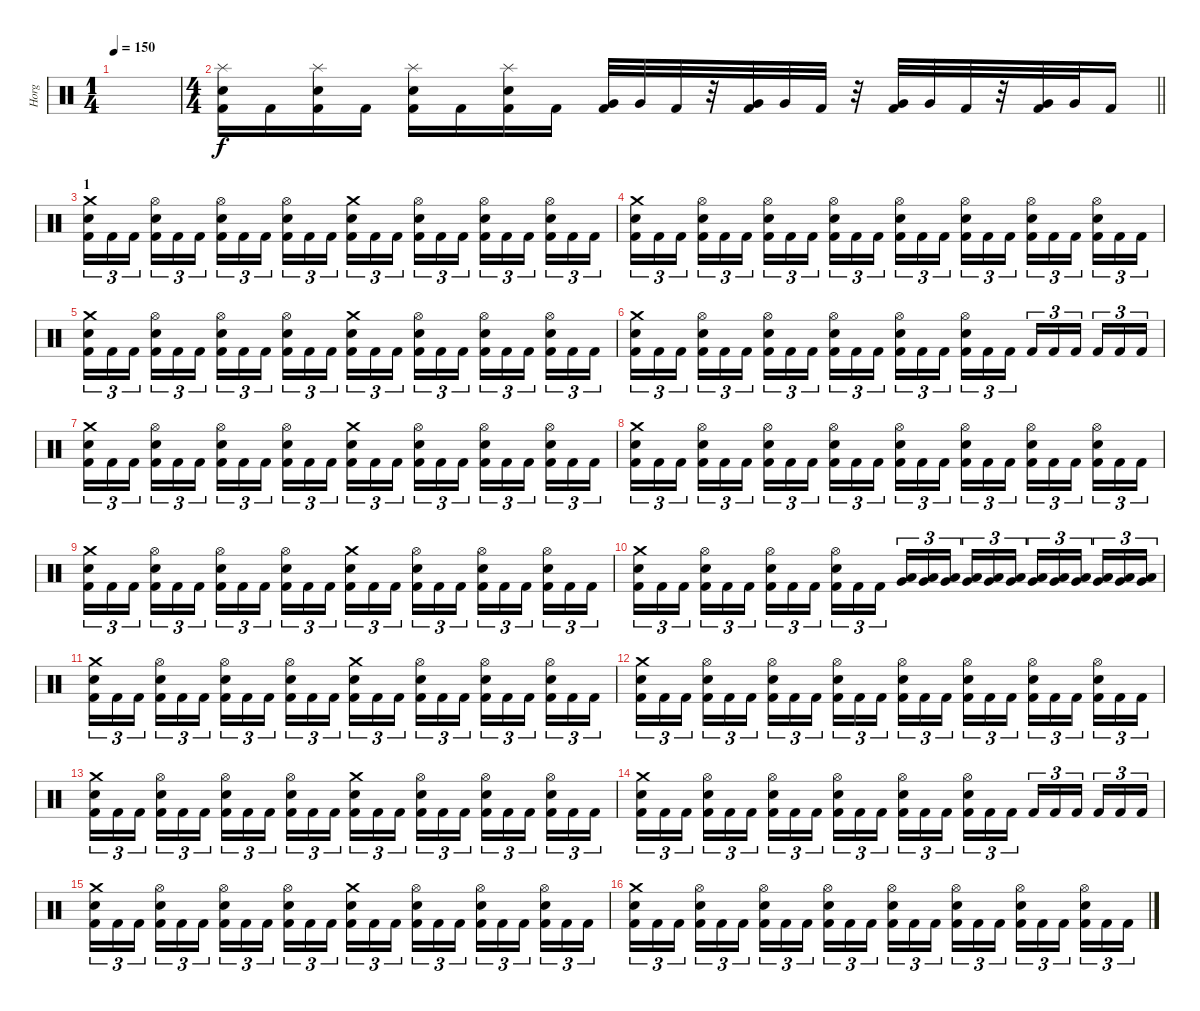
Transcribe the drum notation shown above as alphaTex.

\track ("Horg" "Horg") {instrument percussion}
\staff {score}
\articulation defaults
\ts (1 4)
\tempo 150
\clef neutral
\ks c
|
\ts (4 4)
\barLineRight lightlight
("Splash (hit)" "Snare (hit) 2" "Kick (hit) 2").16 "Kick (hit) 2".16 ("Splash (hit)" "Snare (hit) 2" "Kick (hit) 2").16 "Kick (hit) 2".16 ("Splash (hit)" "Snare (hit) 2" "Kick (hit) 2").16 "Kick (hit) 2".16 ("Splash (hit)" "Snare (hit) 2" "Kick (hit) 2").16 "Kick (hit) 2".16 ("Very Low Tom (hit)" "Kick (hit) 2").32 "Very Low Tom (hit)".32 "Kick (hit) 2".32 r.32 ("Very Low Tom (hit)" "Kick (hit) 2").32 "Very Low Tom (hit)".32 "Kick (hit) 2".32 r.32 ("Very Low Tom (hit)" "Kick (hit) 2").32 "Very Low Tom (hit)".32 "Kick (hit) 2".32 r.32 ("Very Low Tom (hit)" "Kick (hit) 2").32 "Very Low Tom (hit)".32 "Kick (hit) 2".16 |
\section ("" "1")
("Crash medium (hit)" "Snare (hit) 2" "Kick (hit) 2").16{tu (3 2)} "Kick (hit) 2".16{tu (3 2)} "Kick (hit) 2".16{tu (3 2) beam splitsecondary} ("Hi-Hat (open)" "Snare (hit) 2" "Kick (hit) 2").16{tu (3 2)} "Kick (hit) 2".16{tu (3 2)} "Kick (hit) 2".16{tu (3 2)} ("Hi-Hat (open)" "Snare (hit) 2" "Kick (hit) 2").16{tu (3 2)} "Kick (hit) 2".16{tu (3 2)} "Kick (hit) 2".16{tu (3 2) beam splitsecondary} ("Hi-Hat (open)" "Snare (hit) 2" "Kick (hit) 2").16{tu (3 2)} "Kick (hit) 2".16{tu (3 2)} "Kick (hit) 2".16{tu (3 2)} ("Crash medium (hit)" "Snare (hit) 2" "Kick (hit) 2").16{tu (3 2)} "Kick (hit) 2".16{tu (3 2)} "Kick (hit) 2".16{tu (3 2) beam splitsecondary} ("Hi-Hat (open)" "Snare (hit) 2" "Kick (hit) 2").16{tu (3 2)} "Kick (hit) 2".16{tu (3 2)} "Kick (hit) 2".16{tu (3 2)} ("Hi-Hat (open)" "Snare (hit) 2" "Kick (hit) 2").16{tu (3 2)} "Kick (hit) 2".16{tu (3 2)} "Kick (hit) 2".16{tu (3 2) beam splitsecondary} ("Hi-Hat (open)" "Snare (hit) 2" "Kick (hit) 2").16{tu (3 2)} "Kick (hit) 2".16{tu (3 2)} "Kick (hit) 2".16{tu (3 2)} |
("Crash medium (hit)" "Snare (hit) 2" "Kick (hit) 2").16{tu (3 2)} "Kick (hit) 2".16{tu (3 2)} "Kick (hit) 2".16{tu (3 2) beam splitsecondary} ("Hi-Hat (open)" "Snare (hit) 2" "Kick (hit) 2").16{tu (3 2)} "Kick (hit) 2".16{tu (3 2)} "Kick (hit) 2".16{tu (3 2)} ("Hi-Hat (open)" "Snare (hit) 2" "Kick (hit) 2").16{tu (3 2)} "Kick (hit) 2".16{tu (3 2)} "Kick (hit) 2".16{tu (3 2) beam splitsecondary} ("Hi-Hat (open)" "Snare (hit) 2" "Kick (hit) 2").16{tu (3 2)} "Kick (hit) 2".16{tu (3 2)} "Kick (hit) 2".16{tu (3 2)} ("Hi-Hat (open)" "Snare (hit) 2" "Kick (hit) 2").16{tu (3 2)} "Kick (hit) 2".16{tu (3 2)} "Kick (hit) 2".16{tu (3 2) beam splitsecondary} ("Hi-Hat (open)" "Snare (hit) 2" "Kick (hit) 2").16{tu (3 2)} "Kick (hit) 2".16{tu (3 2)} "Kick (hit) 2".16{tu (3 2)} ("Hi-Hat (open)" "Snare (hit) 2" "Kick (hit) 2").16{tu (3 2)} "Kick (hit) 2".16{tu (3 2)} "Kick (hit) 2".16{tu (3 2) beam splitsecondary} ("Hi-Hat (open)" "Snare (hit) 2" "Kick (hit) 2").16{tu (3 2)} "Kick (hit) 2".16{tu (3 2)} "Kick (hit) 2".16{tu (3 2)} |
("Crash medium (hit)" "Snare (hit) 2" "Kick (hit) 2").16{tu (3 2)} "Kick (hit) 2".16{tu (3 2)} "Kick (hit) 2".16{tu (3 2) beam splitsecondary} ("Hi-Hat (open)" "Snare (hit) 2" "Kick (hit) 2").16{tu (3 2)} "Kick (hit) 2".16{tu (3 2)} "Kick (hit) 2".16{tu (3 2)} ("Hi-Hat (open)" "Snare (hit) 2" "Kick (hit) 2").16{tu (3 2)} "Kick (hit) 2".16{tu (3 2)} "Kick (hit) 2".16{tu (3 2) beam splitsecondary} ("Hi-Hat (open)" "Snare (hit) 2" "Kick (hit) 2").16{tu (3 2)} "Kick (hit) 2".16{tu (3 2)} "Kick (hit) 2".16{tu (3 2)} ("Crash medium (hit)" "Snare (hit) 2" "Kick (hit) 2").16{tu (3 2)} "Kick (hit) 2".16{tu (3 2)} "Kick (hit) 2".16{tu (3 2) beam splitsecondary} ("Hi-Hat (open)" "Snare (hit) 2" "Kick (hit) 2").16{tu (3 2)} "Kick (hit) 2".16{tu (3 2)} "Kick (hit) 2".16{tu (3 2)} ("Hi-Hat (open)" "Snare (hit) 2" "Kick (hit) 2").16{tu (3 2)} "Kick (hit) 2".16{tu (3 2)} "Kick (hit) 2".16{tu (3 2) beam splitsecondary} ("Hi-Hat (open)" "Snare (hit) 2" "Kick (hit) 2").16{tu (3 2)} "Kick (hit) 2".16{tu (3 2)} "Kick (hit) 2".16{tu (3 2)} |
("Crash medium (hit)" "Snare (hit) 2" "Kick (hit) 2").16{tu (3 2)} "Kick (hit) 2".16{tu (3 2)} "Kick (hit) 2".16{tu (3 2) beam splitsecondary} ("Hi-Hat (open)" "Snare (hit) 2" "Kick (hit) 2").16{tu (3 2)} "Kick (hit) 2".16{tu (3 2)} "Kick (hit) 2".16{tu (3 2)} ("Hi-Hat (open)" "Snare (hit) 2" "Kick (hit) 2").16{tu (3 2)} "Kick (hit) 2".16{tu (3 2)} "Kick (hit) 2".16{tu (3 2) beam splitsecondary} ("Hi-Hat (open)" "Snare (hit) 2" "Kick (hit) 2").16{tu (3 2)} "Kick (hit) 2".16{tu (3 2)} "Kick (hit) 2".16{tu (3 2)} ("Hi-Hat (open)" "Snare (hit) 2" "Kick (hit) 2").16{tu (3 2)} "Kick (hit) 2".16{tu (3 2)} "Kick (hit) 2".16{tu (3 2) beam splitsecondary} ("Hi-Hat (open)" "Snare (hit) 2" "Kick (hit) 2").16{tu (3 2)} "Kick (hit) 2".16{tu (3 2)} "Kick (hit) 2".16{tu (3 2)} "Kick (hit) 2".16{tu (3 2)} "Kick (hit) 2".16{tu (3 2)} "Kick (hit) 2".16{tu (3 2) beam splitsecondary} "Kick (hit) 2".16{tu (3 2)} "Kick (hit) 2".16{tu (3 2)} "Kick (hit) 2".16{tu (3 2)} |
("Crash medium (hit)" "Snare (hit) 2" "Kick (hit) 2").16{tu (3 2)} "Kick (hit) 2".16{tu (3 2)} "Kick (hit) 2".16{tu (3 2) beam splitsecondary} ("Hi-Hat (open)" "Snare (hit) 2" "Kick (hit) 2").16{tu (3 2)} "Kick (hit) 2".16{tu (3 2)} "Kick (hit) 2".16{tu (3 2)} ("Hi-Hat (open)" "Snare (hit) 2" "Kick (hit) 2").16{tu (3 2)} "Kick (hit) 2".16{tu (3 2)} "Kick (hit) 2".16{tu (3 2) beam splitsecondary} ("Hi-Hat (open)" "Snare (hit) 2" "Kick (hit) 2").16{tu (3 2)} "Kick (hit) 2".16{tu (3 2)} "Kick (hit) 2".16{tu (3 2)} ("Crash medium (hit)" "Snare (hit) 2" "Kick (hit) 2").16{tu (3 2)} "Kick (hit) 2".16{tu (3 2)} "Kick (hit) 2".16{tu (3 2) beam splitsecondary} ("Hi-Hat (open)" "Snare (hit) 2" "Kick (hit) 2").16{tu (3 2)} "Kick (hit) 2".16{tu (3 2)} "Kick (hit) 2".16{tu (3 2)} ("Hi-Hat (open)" "Snare (hit) 2" "Kick (hit) 2").16{tu (3 2)} "Kick (hit) 2".16{tu (3 2)} "Kick (hit) 2".16{tu (3 2) beam splitsecondary} ("Hi-Hat (open)" "Snare (hit) 2" "Kick (hit) 2").16{tu (3 2)} "Kick (hit) 2".16{tu (3 2)} "Kick (hit) 2".16{tu (3 2)} |
("Crash medium (hit)" "Snare (hit) 2" "Kick (hit) 2").16{tu (3 2)} "Kick (hit) 2".16{tu (3 2)} "Kick (hit) 2".16{tu (3 2) beam splitsecondary} ("Hi-Hat (open)" "Snare (hit) 2" "Kick (hit) 2").16{tu (3 2)} "Kick (hit) 2".16{tu (3 2)} "Kick (hit) 2".16{tu (3 2)} ("Hi-Hat (open)" "Snare (hit) 2" "Kick (hit) 2").16{tu (3 2)} "Kick (hit) 2".16{tu (3 2)} "Kick (hit) 2".16{tu (3 2) beam splitsecondary} ("Hi-Hat (open)" "Snare (hit) 2" "Kick (hit) 2").16{tu (3 2)} "Kick (hit) 2".16{tu (3 2)} "Kick (hit) 2".16{tu (3 2)} ("Hi-Hat (open)" "Snare (hit) 2" "Kick (hit) 2").16{tu (3 2)} "Kick (hit) 2".16{tu (3 2)} "Kick (hit) 2".16{tu (3 2) beam splitsecondary} ("Hi-Hat (open)" "Snare (hit) 2" "Kick (hit) 2").16{tu (3 2)} "Kick (hit) 2".16{tu (3 2)} "Kick (hit) 2".16{tu (3 2)} ("Hi-Hat (open)" "Snare (hit) 2" "Kick (hit) 2").16{tu (3 2)} "Kick (hit) 2".16{tu (3 2)} "Kick (hit) 2".16{tu (3 2) beam splitsecondary} ("Hi-Hat (open)" "Snare (hit) 2" "Kick (hit) 2").16{tu (3 2)} "Kick (hit) 2".16{tu (3 2)} "Kick (hit) 2".16{tu (3 2)} |
("Crash medium (hit)" "Snare (hit) 2" "Kick (hit) 2").16{tu (3 2)} "Kick (hit) 2".16{tu (3 2)} "Kick (hit) 2".16{tu (3 2) beam splitsecondary} ("Hi-Hat (open)" "Snare (hit) 2" "Kick (hit) 2").16{tu (3 2)} "Kick (hit) 2".16{tu (3 2)} "Kick (hit) 2".16{tu (3 2)} ("Hi-Hat (open)" "Snare (hit) 2" "Kick (hit) 2").16{tu (3 2)} "Kick (hit) 2".16{tu (3 2)} "Kick (hit) 2".16{tu (3 2) beam splitsecondary} ("Hi-Hat (open)" "Snare (hit) 2" "Kick (hit) 2").16{tu (3 2)} "Kick (hit) 2".16{tu (3 2)} "Kick (hit) 2".16{tu (3 2)} ("Crash medium (hit)" "Snare (hit) 2" "Kick (hit) 2").16{tu (3 2)} "Kick (hit) 2".16{tu (3 2)} "Kick (hit) 2".16{tu (3 2) beam splitsecondary} ("Hi-Hat (open)" "Snare (hit) 2" "Kick (hit) 2").16{tu (3 2)} "Kick (hit) 2".16{tu (3 2)} "Kick (hit) 2".16{tu (3 2)} ("Hi-Hat (open)" "Snare (hit) 2" "Kick (hit) 2").16{tu (3 2)} "Kick (hit) 2".16{tu (3 2)} "Kick (hit) 2".16{tu (3 2) beam splitsecondary} ("Hi-Hat (open)" "Snare (hit) 2" "Kick (hit) 2").16{tu (3 2)} "Kick (hit) 2".16{tu (3 2)} "Kick (hit) 2".16{tu (3 2)} |
("Crash medium (hit)" "Snare (hit) 2" "Kick (hit) 2").16{tu (3 2)} "Kick (hit) 2".16{tu (3 2)} "Kick (hit) 2".16{tu (3 2) beam splitsecondary} ("Hi-Hat (open)" "Snare (hit) 2" "Kick (hit) 2").16{tu (3 2)} "Kick (hit) 2".16{tu (3 2)} "Kick (hit) 2".16{tu (3 2)} ("Hi-Hat (open)" "Snare (hit) 2" "Kick (hit) 2").16{tu (3 2)} "Kick (hit) 2".16{tu (3 2)} "Kick (hit) 2".16{tu (3 2) beam splitsecondary} ("Hi-Hat (open)" "Snare (hit) 2" "Kick (hit) 2").16{tu (3 2)} "Kick (hit) 2".16{tu (3 2)} "Kick (hit) 2".16{tu (3 2)} ("Low Tom (hit)" "Very Low Tom (hit)").16{tu (3 2)} ("Low Tom (hit)" "Very Low Tom (hit)").16{tu (3 2)} ("Low Tom (hit)" "Very Low Tom (hit)").16{tu (3 2) beam splitsecondary} ("Low Tom (hit)" "Very Low Tom (hit)").16{tu (3 2)} ("Low Tom (hit)" "Very Low Tom (hit)").16{tu (3 2)} ("Low Tom (hit)" "Very Low Tom (hit)").16{tu (3 2)} ("Very Low Tom (hit)" "Low Floor Tom (hit)").16{tu (3 2)} ("Very Low Tom (hit)" "Low Floor Tom (hit)").16{tu (3 2)} ("Very Low Tom (hit)" "Low Floor Tom (hit)").16{tu (3 2) beam splitsecondary} ("Very Low Tom (hit)" "Low Floor Tom (hit)").16{tu (3 2)} ("Very Low Tom (hit)" "Low Floor Tom (hit)").16{tu (3 2)} ("Very Low Tom (hit)" "Low Floor Tom (hit)").16{tu (3 2)} |
("Crash medium (hit)" "Snare (hit) 2" "Kick (hit) 2").16{tu (3 2)} "Kick (hit) 2".16{tu (3 2)} "Kick (hit) 2".16{tu (3 2) beam splitsecondary} ("Hi-Hat (open)" "Snare (hit) 2" "Kick (hit) 2").16{tu (3 2)} "Kick (hit) 2".16{tu (3 2)} "Kick (hit) 2".16{tu (3 2)} ("Hi-Hat (open)" "Snare (hit) 2" "Kick (hit) 2").16{tu (3 2)} "Kick (hit) 2".16{tu (3 2)} "Kick (hit) 2".16{tu (3 2) beam splitsecondary} ("Hi-Hat (open)" "Snare (hit) 2" "Kick (hit) 2").16{tu (3 2)} "Kick (hit) 2".16{tu (3 2)} "Kick (hit) 2".16{tu (3 2)} ("Crash medium (hit)" "Snare (hit) 2" "Kick (hit) 2").16{tu (3 2)} "Kick (hit) 2".16{tu (3 2)} "Kick (hit) 2".16{tu (3 2) beam splitsecondary} ("Hi-Hat (open)" "Snare (hit) 2" "Kick (hit) 2").16{tu (3 2)} "Kick (hit) 2".16{tu (3 2)} "Kick (hit) 2".16{tu (3 2)} ("Hi-Hat (open)" "Snare (hit) 2" "Kick (hit) 2").16{tu (3 2)} "Kick (hit) 2".16{tu (3 2)} "Kick (hit) 2".16{tu (3 2) beam splitsecondary} ("Hi-Hat (open)" "Snare (hit) 2" "Kick (hit) 2").16{tu (3 2)} "Kick (hit) 2".16{tu (3 2)} "Kick (hit) 2".16{tu (3 2)} |
("Crash medium (hit)" "Snare (hit) 2" "Kick (hit) 2").16{tu (3 2)} "Kick (hit) 2".16{tu (3 2)} "Kick (hit) 2".16{tu (3 2) beam splitsecondary} ("Hi-Hat (open)" "Snare (hit) 2" "Kick (hit) 2").16{tu (3 2)} "Kick (hit) 2".16{tu (3 2)} "Kick (hit) 2".16{tu (3 2)} ("Hi-Hat (open)" "Snare (hit) 2" "Kick (hit) 2").16{tu (3 2)} "Kick (hit) 2".16{tu (3 2)} "Kick (hit) 2".16{tu (3 2) beam splitsecondary} ("Hi-Hat (open)" "Snare (hit) 2" "Kick (hit) 2").16{tu (3 2)} "Kick (hit) 2".16{tu (3 2)} "Kick (hit) 2".16{tu (3 2)} ("Hi-Hat (open)" "Snare (hit) 2" "Kick (hit) 2").16{tu (3 2)} "Kick (hit) 2".16{tu (3 2)} "Kick (hit) 2".16{tu (3 2) beam splitsecondary} ("Hi-Hat (open)" "Snare (hit) 2" "Kick (hit) 2").16{tu (3 2)} "Kick (hit) 2".16{tu (3 2)} "Kick (hit) 2".16{tu (3 2)} ("Hi-Hat (open)" "Snare (hit) 2" "Kick (hit) 2").16{tu (3 2)} "Kick (hit) 2".16{tu (3 2)} "Kick (hit) 2".16{tu (3 2) beam splitsecondary} ("Hi-Hat (open)" "Snare (hit) 2" "Kick (hit) 2").16{tu (3 2)} "Kick (hit) 2".16{tu (3 2)} "Kick (hit) 2".16{tu (3 2)} |
("Crash medium (hit)" "Snare (hit) 2" "Kick (hit) 2").16{tu (3 2)} "Kick (hit) 2".16{tu (3 2)} "Kick (hit) 2".16{tu (3 2) beam splitsecondary} ("Hi-Hat (open)" "Snare (hit) 2" "Kick (hit) 2").16{tu (3 2)} "Kick (hit) 2".16{tu (3 2)} "Kick (hit) 2".16{tu (3 2)} ("Hi-Hat (open)" "Snare (hit) 2" "Kick (hit) 2").16{tu (3 2)} "Kick (hit) 2".16{tu (3 2)} "Kick (hit) 2".16{tu (3 2) beam splitsecondary} ("Hi-Hat (open)" "Snare (hit) 2" "Kick (hit) 2").16{tu (3 2)} "Kick (hit) 2".16{tu (3 2)} "Kick (hit) 2".16{tu (3 2)} ("Crash medium (hit)" "Snare (hit) 2" "Kick (hit) 2").16{tu (3 2)} "Kick (hit) 2".16{tu (3 2)} "Kick (hit) 2".16{tu (3 2) beam splitsecondary} ("Hi-Hat (open)" "Snare (hit) 2" "Kick (hit) 2").16{tu (3 2)} "Kick (hit) 2".16{tu (3 2)} "Kick (hit) 2".16{tu (3 2)} ("Hi-Hat (open)" "Snare (hit) 2" "Kick (hit) 2").16{tu (3 2)} "Kick (hit) 2".16{tu (3 2)} "Kick (hit) 2".16{tu (3 2) beam splitsecondary} ("Hi-Hat (open)" "Snare (hit) 2" "Kick (hit) 2").16{tu (3 2)} "Kick (hit) 2".16{tu (3 2)} "Kick (hit) 2".16{tu (3 2)} |
("Crash medium (hit)" "Snare (hit) 2" "Kick (hit) 2").16{tu (3 2)} "Kick (hit) 2".16{tu (3 2)} "Kick (hit) 2".16{tu (3 2) beam splitsecondary} ("Hi-Hat (open)" "Snare (hit) 2" "Kick (hit) 2").16{tu (3 2)} "Kick (hit) 2".16{tu (3 2)} "Kick (hit) 2".16{tu (3 2)} ("Hi-Hat (open)" "Snare (hit) 2" "Kick (hit) 2").16{tu (3 2)} "Kick (hit) 2".16{tu (3 2)} "Kick (hit) 2".16{tu (3 2) beam splitsecondary} ("Hi-Hat (open)" "Snare (hit) 2" "Kick (hit) 2").16{tu (3 2)} "Kick (hit) 2".16{tu (3 2)} "Kick (hit) 2".16{tu (3 2)} ("Hi-Hat (open)" "Snare (hit) 2" "Kick (hit) 2").16{tu (3 2)} "Kick (hit) 2".16{tu (3 2)} "Kick (hit) 2".16{tu (3 2) beam splitsecondary} ("Hi-Hat (open)" "Snare (hit) 2" "Kick (hit) 2").16{tu (3 2)} "Kick (hit) 2".16{tu (3 2)} "Kick (hit) 2".16{tu (3 2)} "Kick (hit) 2".16{tu (3 2)} "Kick (hit) 2".16{tu (3 2)} "Kick (hit) 2".16{tu (3 2) beam splitsecondary} "Kick (hit) 2".16{tu (3 2)} "Kick (hit) 2".16{tu (3 2)} "Kick (hit) 2".16{tu (3 2)} |
("Crash medium (hit)" "Snare (hit) 2" "Kick (hit) 2").16{tu (3 2)} "Kick (hit) 2".16{tu (3 2)} "Kick (hit) 2".16{tu (3 2) beam splitsecondary} ("Hi-Hat (open)" "Snare (hit) 2" "Kick (hit) 2").16{tu (3 2)} "Kick (hit) 2".16{tu (3 2)} "Kick (hit) 2".16{tu (3 2)} ("Hi-Hat (open)" "Snare (hit) 2" "Kick (hit) 2").16{tu (3 2)} "Kick (hit) 2".16{tu (3 2)} "Kick (hit) 2".16{tu (3 2) beam splitsecondary} ("Hi-Hat (open)" "Snare (hit) 2" "Kick (hit) 2").16{tu (3 2)} "Kick (hit) 2".16{tu (3 2)} "Kick (hit) 2".16{tu (3 2)} ("Crash medium (hit)" "Snare (hit) 2" "Kick (hit) 2").16{tu (3 2)} "Kick (hit) 2".16{tu (3 2)} "Kick (hit) 2".16{tu (3 2) beam splitsecondary} ("Hi-Hat (open)" "Snare (hit) 2" "Kick (hit) 2").16{tu (3 2)} "Kick (hit) 2".16{tu (3 2)} "Kick (hit) 2".16{tu (3 2)} ("Hi-Hat (open)" "Snare (hit) 2" "Kick (hit) 2").16{tu (3 2)} "Kick (hit) 2".16{tu (3 2)} "Kick (hit) 2".16{tu (3 2) beam splitsecondary} ("Hi-Hat (open)" "Snare (hit) 2" "Kick (hit) 2").16{tu (3 2)} "Kick (hit) 2".16{tu (3 2)} "Kick (hit) 2".16{tu (3 2)} |
("Crash medium (hit)" "Snare (hit) 2" "Kick (hit) 2").16{tu (3 2)} "Kick (hit) 2".16{tu (3 2)} "Kick (hit) 2".16{tu (3 2) beam splitsecondary} ("Hi-Hat (open)" "Snare (hit) 2" "Kick (hit) 2").16{tu (3 2)} "Kick (hit) 2".16{tu (3 2)} "Kick (hit) 2".16{tu (3 2)} ("Hi-Hat (open)" "Snare (hit) 2" "Kick (hit) 2").16{tu (3 2)} "Kick (hit) 2".16{tu (3 2)} "Kick (hit) 2".16{tu (3 2) beam splitsecondary} ("Hi-Hat (open)" "Snare (hit) 2" "Kick (hit) 2").16{tu (3 2)} "Kick (hit) 2".16{tu (3 2)} "Kick (hit) 2".16{tu (3 2)} ("Hi-Hat (open)" "Snare (hit) 2" "Kick (hit) 2").16{tu (3 2)} "Kick (hit) 2".16{tu (3 2)} "Kick (hit) 2".16{tu (3 2) beam splitsecondary} ("Hi-Hat (open)" "Snare (hit) 2" "Kick (hit) 2").16{tu (3 2)} "Kick (hit) 2".16{tu (3 2)} "Kick (hit) 2".16{tu (3 2)} ("Hi-Hat (open)" "Snare (hit) 2" "Kick (hit) 2").16{tu (3 2)} "Kick (hit) 2".16{tu (3 2)} "Kick (hit) 2".16{tu (3 2) beam splitsecondary} ("Hi-Hat (open)" "Snare (hit) 2" "Kick (hit) 2").16{tu (3 2)} "Kick (hit) 2".16{tu (3 2)} "Kick (hit) 2".16{tu (3 2)}
